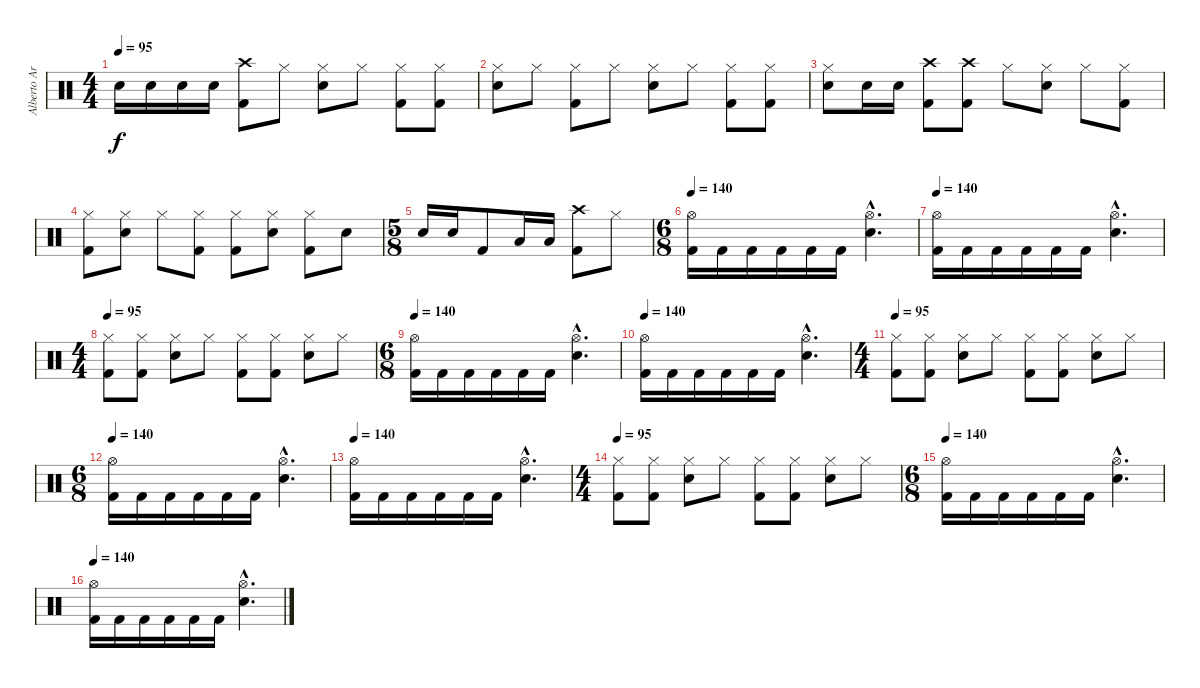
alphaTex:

\track ("Alberto Ardines (Batería)" "Alberto Ar") {instrument percussion}
\staff {score}
\articulation defaults
\ts (4 4)
\tempo 95
\clef neutral
\ks c "Electric Snare (hit)".16{dy f} "Electric Snare (hit)".16 "Electric Snare (hit)".16 "Electric Snare (hit)".16
("Crash high (hit)" "Kick (hit) 2").8 "Hi-Hat (closed)".8 ("Hi-Hat (closed)" "Electric Snare (hit)").8 "Hi-Hat (closed)".8 ("Hi-Hat (closed)" "Kick (hit) 2").8 ("Hi-Hat (closed)" "Kick (hit) 2").8 |
("Hi-Hat (closed)" "Electric Snare (hit)").8 "Hi-Hat (closed)".8 ("Hi-Hat (closed)" "Kick (hit) 2").8 "Hi-Hat (closed)".8 ("Hi-Hat (closed)" "Electric Snare (hit)").8 "Hi-Hat (closed)".8 ("Hi-Hat (closed)" "Kick (hit) 2").8 ("Hi-Hat (closed)" "Kick (hit) 2").8 |
("Hi-Hat (closed)" "Electric Snare (hit)").8 "Electric Snare (hit)".16 "Electric Snare (hit)".16 ("Crash high (hit)" "Kick (hit) 2").8 ("Crash high (hit)" "Kick (hit) 2").8 "Hi-Hat (closed)".8 ("Hi-Hat (closed)" "Electric Snare (hit)").8 "Hi-Hat (closed)".8 ("Hi-Hat (closed)" "Kick (hit) 2").8 |
("Hi-Hat (closed)" "Kick (hit) 2").8 ("Hi-Hat (closed)" "Electric Snare (hit)").8 "Hi-Hat (closed)".8 ("Hi-Hat (closed)" "Kick (hit) 2").8 ("Hi-Hat (closed)" "Kick (hit) 2").8 ("Hi-Hat (closed)" "Electric Snare (hit)").8 ("Hi-Hat (closed)" "Kick (hit) 2").8 "Electric Snare (hit)".8 |
\ts (5 8)
"Electric Snare (hit)".16 "Electric Snare (hit)".16 "Kick (hit) 2".8 "Low Tom (hit)".16 "Low Tom (hit)".16 ("Crash high (hit)" "Kick (hit) 2").8 "Hi-Hat (closed)".8 |
\ts (6 8)
\tempo 140
("Hi-Hat (open)" "Kick (hit) 2").16 "Kick (hit) 2".16 "Kick (hit) 2".16 "Kick (hit) 2".16 "Kick (hit) 2".16 "Kick (hit) 2".16 ("Hi-Hat (open)"{hac} "Electric Snare (hit)"{hac}).4{d} |
\tempo 140
("Hi-Hat (open)" "Kick (hit) 2").16 "Kick (hit) 2".16 "Kick (hit) 2".16 "Kick (hit) 2".16 "Kick (hit) 2".16 "Kick (hit) 2".16 ("Hi-Hat (open)"{hac} "Electric Snare (hit)"{hac}).4{d} |
\ts (4 4)
\tempo 95
("Hi-Hat (closed)" "Kick (hit) 2").8 ("Hi-Hat (closed)" "Kick (hit) 2").8 ("Hi-Hat (closed)" "Electric Snare (hit)").8 "Hi-Hat (closed)".8 ("Hi-Hat (closed)" "Kick (hit) 2").8 ("Hi-Hat (closed)" "Kick (hit) 2").8 ("Hi-Hat (closed)" "Electric Snare (hit)").8 "Hi-Hat (closed)".8 |
\ts (6 8)
\tempo 140
("Hi-Hat (open)" "Kick (hit) 2").16 "Kick (hit) 2".16 "Kick (hit) 2".16 "Kick (hit) 2".16 "Kick (hit) 2".16 "Kick (hit) 2".16 ("Hi-Hat (open)"{hac} "Electric Snare (hit)"{hac}).4{d} |
\tempo 140
("Hi-Hat (open)" "Kick (hit) 2").16 "Kick (hit) 2".16 "Kick (hit) 2".16 "Kick (hit) 2".16 "Kick (hit) 2".16 "Kick (hit) 2".16 ("Hi-Hat (open)"{hac} "Electric Snare (hit)"{hac}).4{d} |
\ts (4 4)
\tempo 95
("Hi-Hat (closed)" "Kick (hit) 2").8 ("Hi-Hat (closed)" "Kick (hit) 2").8 ("Hi-Hat (closed)" "Electric Snare (hit)").8 "Hi-Hat (closed)".8 ("Hi-Hat (closed)" "Kick (hit) 2").8 ("Hi-Hat (closed)" "Kick (hit) 2").8 ("Hi-Hat (closed)" "Electric Snare (hit)").8 "Hi-Hat (closed)".8 |
\ts (6 8)
\tempo 140
("Hi-Hat (open)" "Kick (hit) 2").16 "Kick (hit) 2".16 "Kick (hit) 2".16 "Kick (hit) 2".16 "Kick (hit) 2".16 "Kick (hit) 2".16 ("Hi-Hat (open)"{hac} "Electric Snare (hit)"{hac}).4{d} |
\tempo 140
("Hi-Hat (open)" "Kick (hit) 2").16 "Kick (hit) 2".16 "Kick (hit) 2".16 "Kick (hit) 2".16 "Kick (hit) 2".16 "Kick (hit) 2".16 ("Hi-Hat (open)"{hac} "Electric Snare (hit)"{hac}).4{d} |
\ts (4 4)
\tempo 95
("Hi-Hat (closed)" "Kick (hit) 2").8 ("Hi-Hat (closed)" "Kick (hit) 2").8 ("Hi-Hat (closed)" "Electric Snare (hit)").8 "Hi-Hat (closed)".8 ("Hi-Hat (closed)" "Kick (hit) 2").8 ("Hi-Hat (closed)" "Kick (hit) 2").8 ("Hi-Hat (closed)" "Electric Snare (hit)").8 "Hi-Hat (closed)".8 |
\ts (6 8)
\tempo 140
("Hi-Hat (open)" "Kick (hit) 2").16 "Kick (hit) 2".16 "Kick (hit) 2".16 "Kick (hit) 2".16 "Kick (hit) 2".16 "Kick (hit) 2".16 ("Hi-Hat (open)"{hac} "Electric Snare (hit)"{hac}).4{d} |
\tempo 140
("Hi-Hat (open)" "Kick (hit) 2").16 "Kick (hit) 2".16 "Kick (hit) 2".16 "Kick (hit) 2".16 "Kick (hit) 2".16 "Kick (hit) 2".16 ("Hi-Hat (open)"{hac} "Electric Snare (hit)"{hac}).4{d}
